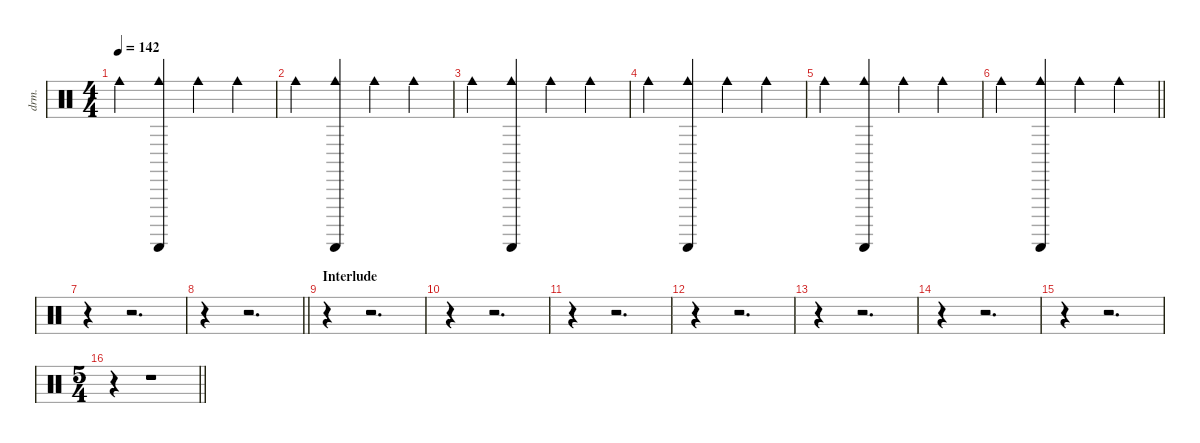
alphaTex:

\defaultSystemsLayout 4
\hideDynamics
\bracketExtendMode nobrackets
\otherSystemsTrackNameOrientation horizontal
\track ("Percussion" "drm.") {instrument percussion}
\staff {score}
\articulation defaults
\ts (4 4)
\tempo 142
\clef neutral
\ks c "Cowbell medium (hit)".4{dy mf beam Down}
("Guiro (scrap-return)" "Cowbell medium (hit)").4{dy p beam Up} "Cowbell medium (hit)".4{dy mf beam Down} "Cowbell medium (hit)".4{beam Down} |
"Cowbell medium (hit)".4{beam Down} ("Guiro (scrap-return)" "Cowbell medium (hit)").4{dy p beam Up} "Cowbell medium (hit)".4{dy mf beam Down} "Cowbell medium (hit)".4{beam Down} |
"Cowbell medium (hit)".4{beam Down} ("Guiro (scrap-return)" "Cowbell medium (hit)").4{dy p beam Up} "Cowbell medium (hit)".4{dy mf beam Down} "Cowbell medium (hit)".4{beam Down} |
"Cowbell medium (hit)".4{beam Down} ("Guiro (scrap-return)" "Cowbell medium (hit)").4{dy p beam Up} "Cowbell medium (hit)".4{dy mf beam Down} "Cowbell medium (hit)".4{beam Down} |
"Cowbell medium (hit)".4{beam Down} ("Guiro (scrap-return)" "Cowbell medium (hit)").4{dy p beam Up} "Cowbell medium (hit)".4{dy mf beam Down} "Cowbell medium (hit)".4{beam Down} |
\barLineRight lightlight "Cowbell medium (hit)".4{beam Down}
("Guiro (scrap-return)" "Cowbell medium (hit)").4{dy p beam Up} "Cowbell medium (hit)".4{dy mf beam Down} "Cowbell medium (hit)".4{beam Down} |
r.4{beam Down} r.2{d beam Down} |
\barLineRight lightlight
r.4{beam Down} r.2{d beam Down} |
\section ("" "Interlude")
r.4{beam Down} r.2{d beam Down} |
r.4{beam Down} r.2{d beam Down} |
r.4{beam Down} r.2{d beam Down} |
r.4{beam Down} r.2{d beam Down} |
r.4{beam Down} r.2{d beam Down} |
r.4{beam Down} r.2{d beam Down} |
r.4{beam Down} r.2{d beam Down} |
\ts (5 4)
\beaming (8 6 4)
\barLineRight lightlight
r.4{beam Down} r.1{beam Down}
